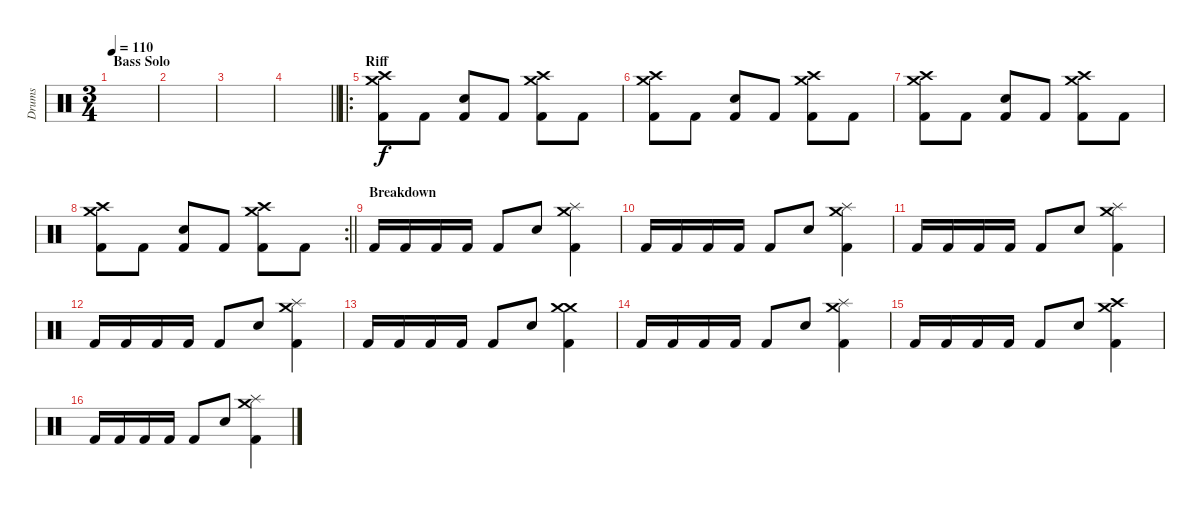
\track ("Drums" "Drums") {instrument percussion}
\staff {score}
\articulation defaults
\ts (3 4)
\section ("" "Bass Solo")
\tempo 110
\clef neutral
\ks c
|
|
|
\barLineRight lightlight
|
\ro
\section ("" "Riff")
("Crash high (hit)" "Crash medium (hit)" "Kick (hit) 2").8 "Kick (hit) 2".8 ("Electric Snare (hit)" "Kick (hit) 2").8 "Kick (hit) 2".8 ("Crash high (hit)" "Crash medium (hit)" "Kick (hit) 2").8 "Kick (hit) 2".8 |
("Crash high (hit)" "Crash medium (hit)" "Kick (hit) 2").8 "Kick (hit) 2".8 ("Electric Snare (hit)" "Kick (hit) 2").8 "Kick (hit) 2".8 ("Crash high (hit)" "Crash medium (hit)" "Kick (hit) 2").8 "Kick (hit) 2".8 |
("Crash high (hit)" "Crash medium (hit)" "Kick (hit) 2").8 "Kick (hit) 2".8 ("Electric Snare (hit)" "Kick (hit) 2").8 "Kick (hit) 2".8 ("Crash high (hit)" "Crash medium (hit)" "Kick (hit) 2").8 "Kick (hit) 2".8 |
\rc 2
\barLineRight lightlight
("Crash high (hit)" "Crash medium (hit)" "Kick (hit) 2").8 "Kick (hit) 2".8 ("Electric Snare (hit)" "Kick (hit) 2").8 "Kick (hit) 2".8 ("Crash high (hit)" "Crash medium (hit)" "Kick (hit) 2").8 "Kick (hit) 2".8 |
\section ("" "Breakdown")
"Kick (hit) 2".16 "Kick (hit) 2".16 "Kick (hit) 2".16 "Kick (hit) 2".16 "Kick (hit) 2".8 "Electric Snare (hit)".8 ("Crash medium (hit)" "Splash (hit)" "Kick (hit) 2").4 |
"Kick (hit) 2".16 "Kick (hit) 2".16 "Kick (hit) 2".16 "Kick (hit) 2".16 "Kick (hit) 2".8 "Electric Snare (hit)".8 ("Crash medium (hit)" "Splash (hit)" "Kick (hit) 2").4 |
"Kick (hit) 2".16 "Kick (hit) 2".16 "Kick (hit) 2".16 "Kick (hit) 2".16 "Kick (hit) 2".8 "Electric Snare (hit)".8 ("Crash medium (hit)" "Splash (hit)" "Kick (hit) 2").4 |
"Kick (hit) 2".16 "Kick (hit) 2".16 "Kick (hit) 2".16 "Kick (hit) 2".16 "Kick (hit) 2".8 "Electric Snare (hit)".8 ("Crash medium (hit)" "Splash (hit)" "Kick (hit) 2").4 |
"Kick (hit) 2".16 "Kick (hit) 2".16 "Kick (hit) 2".16 "Kick (hit) 2".16 "Kick (hit) 2".8 "Electric Snare (hit)".8 ("Crash medium (hit)" "Crash medium (hit)" "Kick (hit) 2").4 |
"Kick (hit) 2".16 "Kick (hit) 2".16 "Kick (hit) 2".16 "Kick (hit) 2".16 "Kick (hit) 2".8 "Electric Snare (hit)".8 ("Crash medium (hit)" "Splash (hit)" "Kick (hit) 2").4 |
"Kick (hit) 2".16 "Kick (hit) 2".16 "Kick (hit) 2".16 "Kick (hit) 2".16 "Kick (hit) 2".8 "Electric Snare (hit)".8 ("Crash high (hit)" "Crash medium (hit)" "Kick (hit) 2").4 |
"Kick (hit) 2".16 "Kick (hit) 2".16 "Kick (hit) 2".16 "Kick (hit) 2".16 "Kick (hit) 2".8 "Electric Snare (hit)".8 ("Crash medium (hit)" "Splash (hit)" "Kick (hit) 2").4
